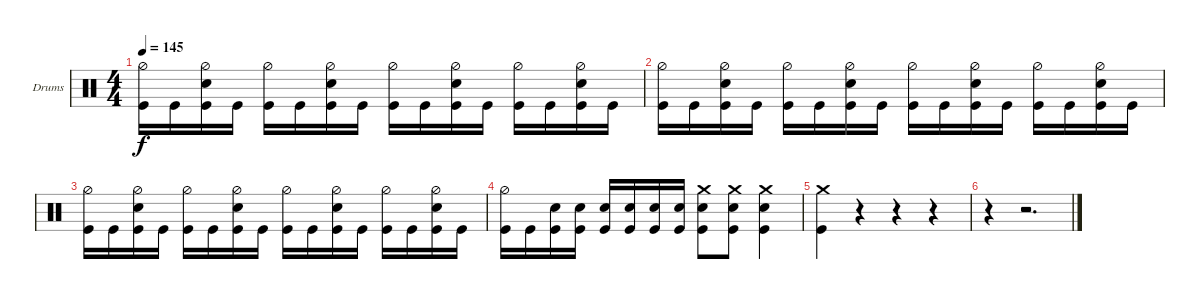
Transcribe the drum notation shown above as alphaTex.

\bracketExtendMode groupsimilarinstruments
\firstSystemTrackNameOrientation horizontal
\otherSystemsTrackNameOrientation horizontal
\track ("Drumkit" "Drums") {instrument percussion}
\staff {score}
\articulation defaults
\ts (4 4)
\tempo 145
\clef neutral
\ks c
("Kick (hit)" "Hi-Hat (half)").16{dy f} "Kick (hit)".16 ("Snare (hit) 2" "Kick (hit)" "Hi-Hat (half)").16 "Kick (hit)".16 ("Kick (hit)" "Hi-Hat (half)").16 "Kick (hit)".16 ("Snare (hit) 2" "Kick (hit)" "Hi-Hat (half)").16 "Kick (hit)".16 ("Kick (hit)" "Hi-Hat (half)").16 "Kick (hit)".16 ("Snare (hit) 2" "Kick (hit)" "Hi-Hat (half)").16 "Kick (hit)".16 ("Kick (hit)" "Hi-Hat (half)").16 "Kick (hit)".16 ("Snare (hit) 2" "Kick (hit)" "Hi-Hat (half)").16 "Kick (hit)".16 |
("Kick (hit)" "Hi-Hat (half)").16 "Kick (hit)".16 ("Snare (hit) 2" "Kick (hit)" "Hi-Hat (half)").16 "Kick (hit)".16 ("Kick (hit)" "Hi-Hat (half)").16 "Kick (hit)".16 ("Snare (hit) 2" "Kick (hit)" "Hi-Hat (half)").16 "Kick (hit)".16 ("Kick (hit)" "Hi-Hat (half)").16 "Kick (hit)".16 ("Snare (hit) 2" "Kick (hit)" "Hi-Hat (half)").16 "Kick (hit)".16 ("Kick (hit)" "Hi-Hat (half)").16 "Kick (hit)".16 ("Snare (hit) 2" "Kick (hit)" "Hi-Hat (half)").16 "Kick (hit)".16 |
("Kick (hit)" "Hi-Hat (half)").16 "Kick (hit)".16 ("Snare (hit) 2" "Kick (hit)" "Hi-Hat (half)").16 "Kick (hit)".16 ("Kick (hit)" "Hi-Hat (half)").16 "Kick (hit)".16 ("Snare (hit) 2" "Kick (hit)" "Hi-Hat (half)").16 "Kick (hit)".16 ("Kick (hit)" "Hi-Hat (half)").16 "Kick (hit)".16 ("Snare (hit) 2" "Kick (hit)" "Hi-Hat (half)").16 "Kick (hit)".16 ("Kick (hit)" "Hi-Hat (half)").16 "Kick (hit)".16 ("Snare (hit) 2" "Kick (hit)" "Hi-Hat (half)").16 "Kick (hit)".16 |
("Kick (hit)" "Hi-Hat (half)").16 "Kick (hit)".16 ("Snare (hit) 2" "Kick (hit)").16 ("Snare (hit) 2" "Kick (hit)").16 ("Snare (hit) 2" "Kick (hit)").16 ("Snare (hit) 2" "Kick (hit)").16 ("Snare (hit) 2" "Kick (hit)").16 ("Snare (hit) 2" "Kick (hit)").16 ("Crash medium (hit)" "Snare (hit) 2" "Kick (hit)").8 ("Crash medium (hit)" "Snare (hit) 2" "Kick (hit)").8 ("Crash medium (hit)" "Snare (hit) 2" "Kick (hit)").4 |
("Crash medium (hit)" "Kick (hit)").4 r.4 r.4 r.4 |
r.4 r.2{d}
